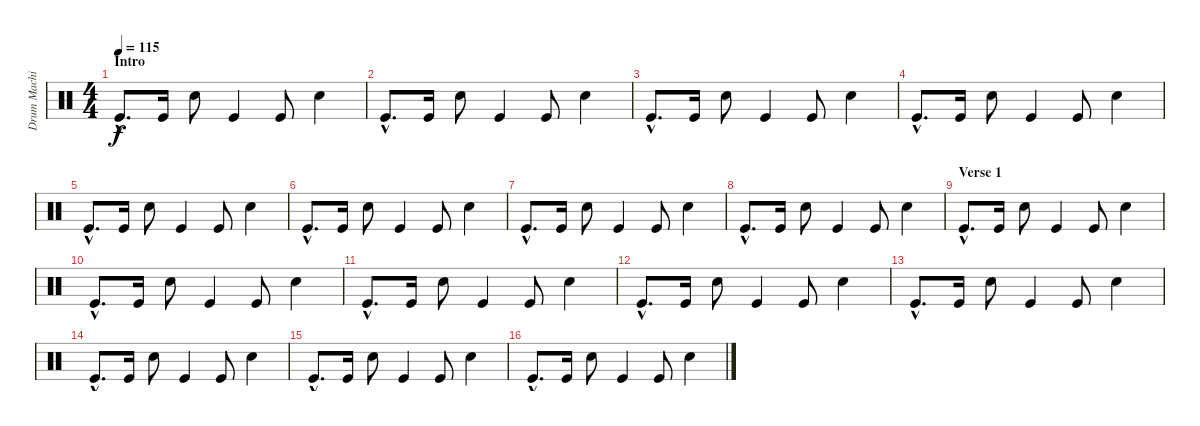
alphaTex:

\track ("Drum Machine" "Drum Machi") {instrument percussion}
\staff {score}
\articulation defaults
\ts (4 4)
\section ("" "Intro")
\tempo 115
\clef neutral
\ks c "Kick (hit)"{hac}.8{d dy f} "Kick (hit)".16 "Snare (hit) 2".8 "Kick (hit)".4 "Kick (hit)".8 "Snare (hit) 2".4
|
"Kick (hit)"{hac}.8{d} "Kick (hit)".16 "Snare (hit) 2".8 "Kick (hit)".4 "Kick (hit)".8 "Snare (hit) 2".4 |
"Kick (hit)"{hac}.8{d} "Kick (hit)".16 "Snare (hit) 2".8 "Kick (hit)".4 "Kick (hit)".8 "Snare (hit) 2".4 |
"Kick (hit)"{hac}.8{d} "Kick (hit)".16 "Snare (hit) 2".8 "Kick (hit)".4 "Kick (hit)".8 "Snare (hit) 2".4 |
"Kick (hit)"{hac}.8{d} "Kick (hit)".16 "Snare (hit) 2".8 "Kick (hit)".4 "Kick (hit)".8 "Snare (hit) 2".4 |
"Kick (hit)"{hac}.8{d} "Kick (hit)".16 "Snare (hit) 2".8 "Kick (hit)".4 "Kick (hit)".8 "Snare (hit) 2".4 |
"Kick (hit)"{hac}.8{d} "Kick (hit)".16 "Snare (hit) 2".8 "Kick (hit)".4 "Kick (hit)".8 "Snare (hit) 2".4 |
"Kick (hit)"{hac}.8{d} "Kick (hit)".16 "Snare (hit) 2".8 "Kick (hit)".4 "Kick (hit)".8 "Snare (hit) 2".4 |
\section ("" "Verse 1")
"Kick (hit)"{hac}.8{d} "Kick (hit)".16 "Snare (hit) 2".8 "Kick (hit)".4 "Kick (hit)".8 "Snare (hit) 2".4 |
"Kick (hit)"{hac}.8{d} "Kick (hit)".16 "Snare (hit) 2".8 "Kick (hit)".4 "Kick (hit)".8 "Snare (hit) 2".4 |
"Kick (hit)"{hac}.8{d} "Kick (hit)".16 "Snare (hit) 2".8 "Kick (hit)".4 "Kick (hit)".8 "Snare (hit) 2".4 |
"Kick (hit)"{hac}.8{d} "Kick (hit)".16 "Snare (hit) 2".8 "Kick (hit)".4 "Kick (hit)".8 "Snare (hit) 2".4 |
"Kick (hit)"{hac}.8{d} "Kick (hit)".16 "Snare (hit) 2".8 "Kick (hit)".4 "Kick (hit)".8 "Snare (hit) 2".4 |
"Kick (hit)"{hac}.8{d} "Kick (hit)".16 "Snare (hit) 2".8 "Kick (hit)".4 "Kick (hit)".8 "Snare (hit) 2".4 |
"Kick (hit)"{hac}.8{d} "Kick (hit)".16 "Snare (hit) 2".8 "Kick (hit)".4 "Kick (hit)".8 "Snare (hit) 2".4 |
"Kick (hit)"{hac}.8{d} "Kick (hit)".16 "Snare (hit) 2".8 "Kick (hit)".4 "Kick (hit)".8 "Snare (hit) 2".4
